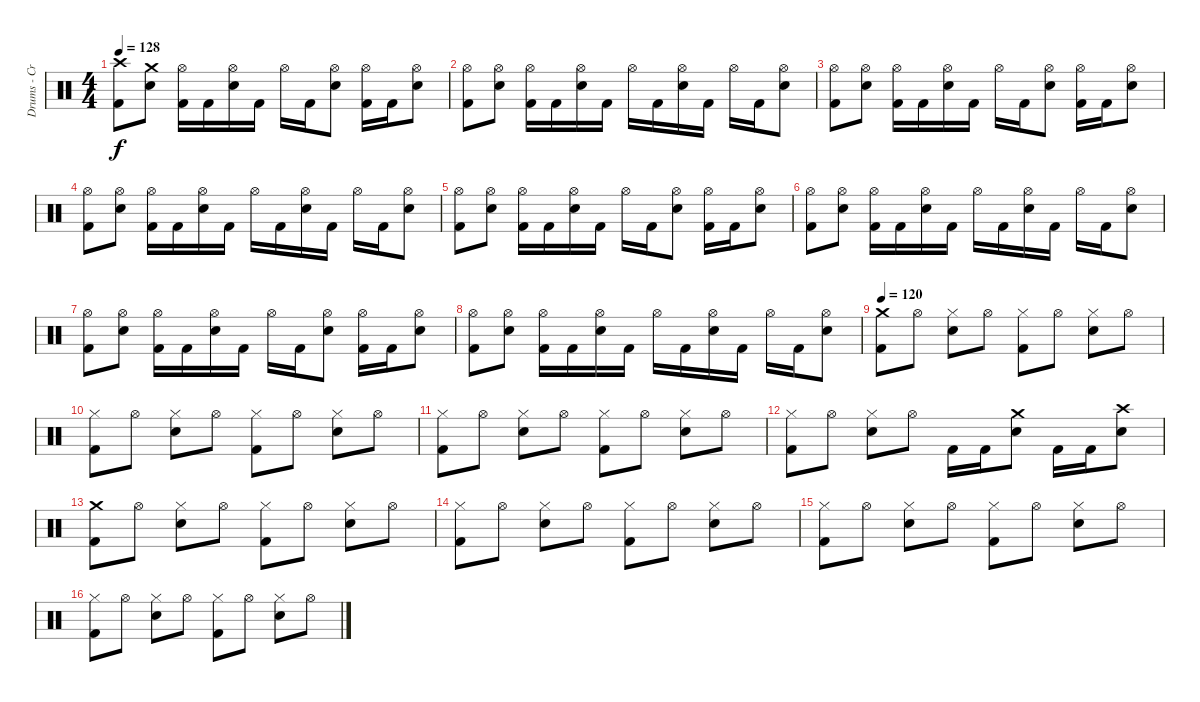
\track ("Drums - Cris Knapp" "Drums - Cr") {instrument percussion}
\staff {score}
\articulation defaults
\ts (4 4)
\tempo 128
\clef neutral
\ks c
("Kick (hit) 2" "Crash high (hit)").8{dy f} ("Electric Snare (hit)" "Crash medium (hit)").8 ("Kick (hit) 2" "Hi-Hat (open)").16 "Kick (hit) 2".16 ("Electric Snare (hit)" "Hi-Hat (open)").16 "Kick (hit) 2".16 "Hi-Hat (open)".16 "Kick (hit) 2".16 ("Electric Snare (hit)" "Hi-Hat (open)").8 ("Kick (hit) 2" "Hi-Hat (open)").16 "Kick (hit) 2".16 ("Electric Snare (hit)" "Hi-Hat (open)").8 |
("Kick (hit) 2" "Hi-Hat (open)").8 ("Electric Snare (hit)" "Hi-Hat (open)").8 ("Kick (hit) 2" "Hi-Hat (open)").16 "Kick (hit) 2".16 ("Electric Snare (hit)" "Hi-Hat (open)").16 "Kick (hit) 2".16 "Hi-Hat (open)".16 "Kick (hit) 2".16 ("Electric Snare (hit)" "Hi-Hat (open)").16 "Kick (hit) 2".16 "Hi-Hat (open)".16 "Kick (hit) 2".16 ("Electric Snare (hit)" "Hi-Hat (open)").8 |
("Kick (hit) 2" "Hi-Hat (open)").8 ("Electric Snare (hit)" "Hi-Hat (open)").8 ("Kick (hit) 2" "Hi-Hat (open)").16 "Kick (hit) 2".16 ("Electric Snare (hit)" "Hi-Hat (open)").16 "Kick (hit) 2".16 "Hi-Hat (open)".16 "Kick (hit) 2".16 ("Electric Snare (hit)" "Hi-Hat (open)").8 ("Kick (hit) 2" "Hi-Hat (open)").16 "Kick (hit) 2".16 ("Electric Snare (hit)" "Hi-Hat (open)").8 |
("Kick (hit) 2" "Hi-Hat (open)").8 ("Electric Snare (hit)" "Hi-Hat (open)").8 ("Kick (hit) 2" "Hi-Hat (open)").16 "Kick (hit) 2".16 ("Electric Snare (hit)" "Hi-Hat (open)").16 "Kick (hit) 2".16 "Hi-Hat (open)".16 "Kick (hit) 2".16 ("Electric Snare (hit)" "Hi-Hat (open)").16 "Kick (hit) 2".16 "Hi-Hat (open)".16 "Kick (hit) 2".16 ("Electric Snare (hit)" "Hi-Hat (open)").8 |
("Kick (hit) 2" "Hi-Hat (open)").8 ("Electric Snare (hit)" "Hi-Hat (open)").8 ("Kick (hit) 2" "Hi-Hat (open)").16 "Kick (hit) 2".16 ("Electric Snare (hit)" "Hi-Hat (open)").16 "Kick (hit) 2".16 "Hi-Hat (open)".16 "Kick (hit) 2".16 ("Electric Snare (hit)" "Hi-Hat (open)").8 ("Kick (hit) 2" "Hi-Hat (open)").16 "Kick (hit) 2".16 ("Electric Snare (hit)" "Hi-Hat (open)").8 |
("Kick (hit) 2" "Hi-Hat (open)").8 ("Electric Snare (hit)" "Hi-Hat (open)").8 ("Kick (hit) 2" "Hi-Hat (open)").16 "Kick (hit) 2".16 ("Electric Snare (hit)" "Hi-Hat (open)").16 "Kick (hit) 2".16 "Hi-Hat (open)".16 "Kick (hit) 2".16 ("Electric Snare (hit)" "Hi-Hat (open)").16 "Kick (hit) 2".16 "Hi-Hat (open)".16 "Kick (hit) 2".16 ("Electric Snare (hit)" "Hi-Hat (open)").8 |
("Kick (hit) 2" "Hi-Hat (open)").8 ("Electric Snare (hit)" "Hi-Hat (open)").8 ("Kick (hit) 2" "Hi-Hat (open)").16 "Kick (hit) 2".16 ("Electric Snare (hit)" "Hi-Hat (open)").16 "Kick (hit) 2".16 "Hi-Hat (open)".16 "Kick (hit) 2".16 ("Electric Snare (hit)" "Hi-Hat (open)").8 ("Kick (hit) 2" "Hi-Hat (open)").16 "Kick (hit) 2".16 ("Electric Snare (hit)" "Hi-Hat (open)").8 |
("Kick (hit) 2" "Hi-Hat (open)").8 ("Electric Snare (hit)" "Hi-Hat (open)").8 ("Kick (hit) 2" "Hi-Hat (open)").16 "Kick (hit) 2".16 ("Electric Snare (hit)" "Hi-Hat (open)").16 "Kick (hit) 2".16 "Hi-Hat (open)".16 "Kick (hit) 2".16 ("Electric Snare (hit)" "Hi-Hat (open)").16 "Kick (hit) 2".16 "Hi-Hat (open)".16 "Kick (hit) 2".16 ("Electric Snare (hit)" "Hi-Hat (open)").8 |
\tempo 120
("Kick (hit) 2" "Crash medium (hit)").8 "Hi-Hat (open)".8 ("Electric Snare (hit)" "Hi-Hat (closed)").8 "Hi-Hat (open)".8 ("Kick (hit) 2" "Hi-Hat (closed)").8 "Hi-Hat (open)".8 ("Electric Snare (hit)" "Hi-Hat (closed)").8 "Hi-Hat (open)".8 |
("Kick (hit) 2" "Hi-Hat (closed)").8 "Hi-Hat (open)".8 ("Electric Snare (hit)" "Hi-Hat (closed)").8 "Hi-Hat (open)".8 ("Kick (hit) 2" "Hi-Hat (closed)").8 "Hi-Hat (open)".8 ("Electric Snare (hit)" "Hi-Hat (closed)").8 "Hi-Hat (open)".8 |
("Kick (hit) 2" "Hi-Hat (closed)").8 "Hi-Hat (open)".8 ("Electric Snare (hit)" "Hi-Hat (closed)").8 "Hi-Hat (open)".8 ("Kick (hit) 2" "Hi-Hat (closed)").8 "Hi-Hat (open)".8 ("Electric Snare (hit)" "Hi-Hat (closed)").8 "Hi-Hat (open)".8 |
("Kick (hit) 2" "Hi-Hat (closed)").8 "Hi-Hat (open)".8 ("Electric Snare (hit)" "Hi-Hat (closed)").8 "Hi-Hat (open)".8 "Kick (hit) 2".16 "Kick (hit) 2".16 ("Electric Snare (hit)" "Crash medium (hit)").8 "Kick (hit) 2".16 "Kick (hit) 2".16 ("Electric Snare (hit)" "Crash high (hit)").8 |
("Kick (hit) 2" "Crash medium (hit)").8 "Hi-Hat (open)".8 ("Electric Snare (hit)" "Hi-Hat (closed)").8 "Hi-Hat (open)".8 ("Kick (hit) 2" "Hi-Hat (closed)").8 "Hi-Hat (open)".8 ("Electric Snare (hit)" "Hi-Hat (closed)").8 "Hi-Hat (open)".8 |
("Kick (hit) 2" "Hi-Hat (closed)").8 "Hi-Hat (open)".8 ("Electric Snare (hit)" "Hi-Hat (closed)").8 "Hi-Hat (open)".8 ("Kick (hit) 2" "Hi-Hat (closed)").8 "Hi-Hat (open)".8 ("Electric Snare (hit)" "Hi-Hat (closed)").8 "Hi-Hat (open)".8 |
("Kick (hit) 2" "Hi-Hat (closed)").8 "Hi-Hat (open)".8 ("Electric Snare (hit)" "Hi-Hat (closed)").8 "Hi-Hat (open)".8 ("Kick (hit) 2" "Hi-Hat (closed)").8 "Hi-Hat (open)".8 ("Electric Snare (hit)" "Hi-Hat (closed)").8 "Hi-Hat (open)".8 |
("Kick (hit) 2" "Hi-Hat (closed)").8 "Hi-Hat (open)".8 ("Electric Snare (hit)" "Hi-Hat (closed)").8 "Hi-Hat (open)".8 ("Kick (hit) 2" "Hi-Hat (closed)").8 "Hi-Hat (open)".8 ("Electric Snare (hit)" "Hi-Hat (closed)").8 "Hi-Hat (open)".8
